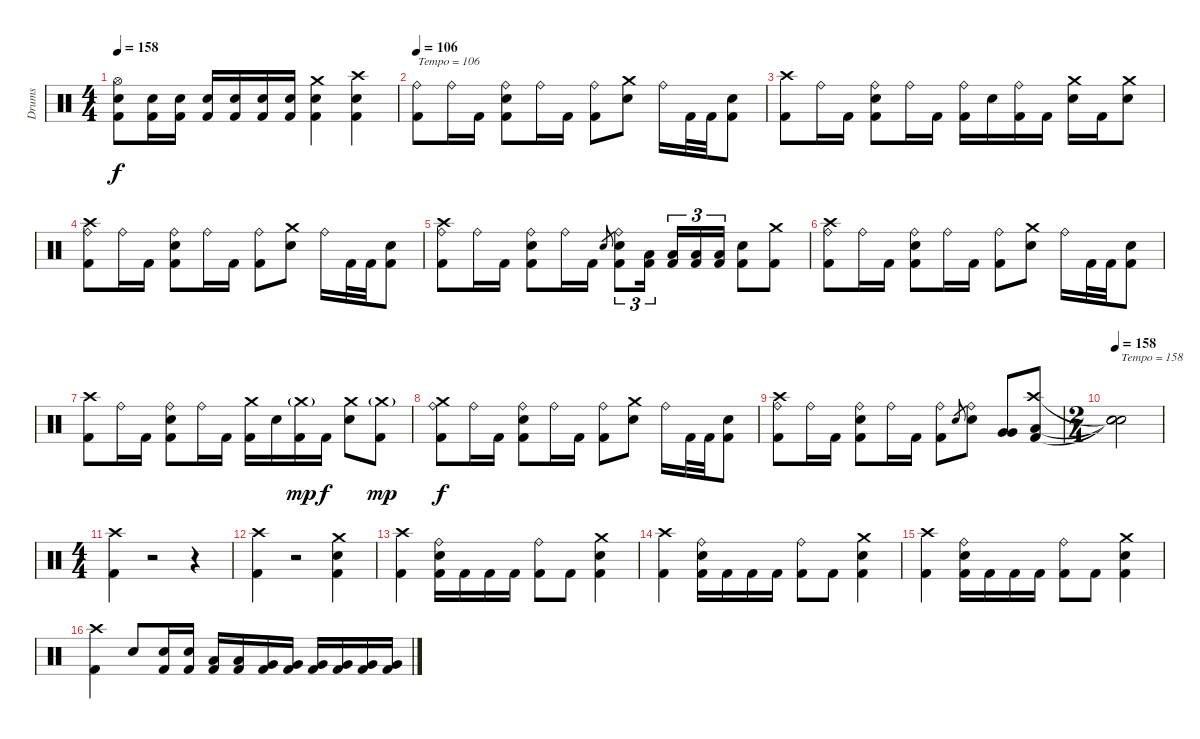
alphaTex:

\track ("Drums" "Drums") {instrument percussion}
\staff {score}
\articulation defaults
\ts (4 4)
\tempo 158
\clef neutral
\ks c
("Hi-Hat (open)" "Electric Snare (hit)" "Kick (hit) 2").8{dy f} ("Electric Snare (hit)" "Kick (hit) 2").16 ("Electric Snare (hit)" "Kick (hit) 2").16 ("Electric Snare (hit)" "Kick (hit) 2").16 ("Electric Snare (hit)" "Kick (hit) 2").16 ("Electric Snare (hit)" "Kick (hit) 2").16 ("Electric Snare (hit)" "Kick (hit) 2").16 ("Crash medium (hit)" "Electric Snare (hit)" "Kick (hit) 2").4 ("Crash high (hit)" "Electric Snare (hit)" "Kick (hit) 2").4 |
\tempo 106
("Ride (bell)" "Kick (hit) 2").8{txt "Tempo = 106"} "Ride (bell)".16 "Kick (hit) 2".16 ("Ride (bell)" "Electric Snare (hit)" "Kick (hit) 2").8 "Ride (bell)".16 "Kick (hit) 2".16 ("Ride (bell)" "Kick (hit) 2").8 ("Crash medium (hit)" "Electric Snare (hit)").8 "Ride (bell)".16 "Kick (hit) 2".32 "Kick (hit) 2".32 ("Electric Snare (hit)" "Kick (hit) 2").8 |
("Crash high (hit)" "Kick (hit) 2").8 "Ride (bell)".16 "Kick (hit) 2".16 ("Ride (bell)" "Electric Snare (hit)" "Kick (hit) 2").8 "Ride (bell)".16 "Kick (hit) 2".16 ("Ride (bell)" "Kick (hit) 2").16 "Electric Snare (hit)".16 ("Ride (bell)" "Kick (hit) 2").16 "Kick (hit) 2".16 ("Crash medium (hit)" "Electric Snare (hit)").16 "Kick (hit) 2".16 ("Crash medium (hit)" "Electric Snare (hit)").8 |
("Crash high (hit)" "Ride (bell)" "Kick (hit) 2").8 "Ride (bell)".16 "Kick (hit) 2".16 ("Ride (bell)" "Electric Snare (hit)" "Kick (hit) 2").8 "Ride (bell)".16 "Kick (hit) 2".16 ("Ride (bell)" "Kick (hit) 2").8 ("Crash medium (hit)" "Electric Snare (hit)").8 "Ride (bell)".16 "Kick (hit) 2".32 "Kick (hit) 2".32 ("Electric Snare (hit)" "Kick (hit) 2").8 |
("Crash high (hit)" "Ride (bell)" "Kick (hit) 2").8 "Ride (bell)".16 "Kick (hit) 2".16 ("Ride (bell)" "Electric Snare (hit)" "Kick (hit) 2").8 "Ride (bell)".16 "Kick (hit) 2".16 "Electric Snare (hit)".8{gr} ("Ride (bell)" "Electric Snare (hit)" "Kick (hit) 2").8{tu (3 2)} ("Low Floor Tom (hit)" "Kick (hit) 2").16{tu (3 2)} ("Low Floor Tom (hit)" "Kick (hit) 2").16{tu (3 2)} ("Low Floor Tom (hit)" "Kick (hit) 2").16{tu (3 2)} ("Low Floor Tom (hit)" "Kick (hit) 2").16{tu (3 2)} ("Electric Snare (hit)" "Kick (hit) 2").8 ("Crash medium (hit)" "Kick (hit) 2").8 |
("Crash high (hit)" "Ride (bell)" "Kick (hit) 2").8 "Ride (bell)".16 "Kick (hit) 2".16 ("Ride (bell)" "Electric Snare (hit)" "Kick (hit) 2").8 "Ride (bell)".16 "Kick (hit) 2".16 ("Ride (bell)" "Kick (hit) 2").8 ("Crash medium (hit)" "Electric Snare (hit)").8 "Ride (bell)".16 "Kick (hit) 2".32 "Kick (hit) 2".32 ("Electric Snare (hit)" "Kick (hit) 2").8 |
("Crash high (hit)" "Kick (hit) 2").8 "Ride (bell)".16 "Kick (hit) 2".16 ("Ride (bell)" "Electric Snare (hit)" "Kick (hit) 2").8 "Ride (bell)".16 "Kick (hit) 2".16 ("Crash medium (hit)" "Kick (hit) 2").16 "Electric Snare (hit)".16 ("Crash medium (hit)"{g} "Kick (hit) 2").16{dy mp} "Kick (hit) 2".16{dy f} ("Crash medium (hit)" "Electric Snare (hit)").8 ("Crash medium (hit)"{g} "Kick (hit) 2").8{dy mp} |
("Crash medium (hit)" "Ride (bell)" "Kick (hit) 2").8{dy f} "Ride (bell)".16 "Kick (hit) 2".16 ("Ride (bell)" "Electric Snare (hit)" "Kick (hit) 2").8 "Ride (bell)".16 "Kick (hit) 2".16 ("Ride (bell)" "Kick (hit) 2").8 ("Crash medium (hit)" "Electric Snare (hit)").8 "Ride (bell)".16 "Kick (hit) 2".32 "Kick (hit) 2".32 ("Electric Snare (hit)" "Kick (hit) 2").8 |
("Crash high (hit)" "Ride (bell)" "Kick (hit) 2").8 "Ride (bell)".16 "Kick (hit) 2".16 ("Ride (bell)" "Electric Snare (hit)" "Kick (hit) 2").8 "Ride (bell)".16 "Kick (hit) 2".16 ("Ride (bell)" "Kick (hit) 2").8 "Electric Snare (hit)".8{gr} ("Ride (bell)" "Electric Snare (hit)").8 ("Very Low Tom (hit)" "Very Low Tom (hit)").8 ("Crash high (hit)" "Low Floor Tom (hit)" "Kick (hit) 2").8 |
\ts (2 4)
\tempo 158
("Snare (hit)"{t} "Snare (hit)"{t} "Snare (hit)"{t}).2{txt "Tempo = 158"} |
\ts (4 4)
("Crash high (hit)" "Kick (hit) 2").4 r.2 r.4 |
("Crash high (hit)" "Kick (hit) 2").4 r.2 ("Crash medium (hit)" "Electric Snare (hit)" "Kick (hit) 2").4 |
("Crash high (hit)" "Kick (hit) 2").4 ("Ride (bell)" "Electric Snare (hit)" "Kick (hit) 2").16 "Kick (hit) 2".16 "Kick (hit) 2".16 "Kick (hit) 2".16 ("Ride (bell)" "Kick (hit) 2").8 "Kick (hit) 2".8 ("Crash medium (hit)" "Electric Snare (hit)" "Kick (hit) 2").4 |
("Crash high (hit)" "Kick (hit) 2").4 ("Ride (bell)" "Electric Snare (hit)" "Kick (hit) 2").16 "Kick (hit) 2".16 "Kick (hit) 2".16 "Kick (hit) 2".16 ("Ride (bell)" "Kick (hit) 2").8 "Kick (hit) 2".8 ("Crash medium (hit)" "Electric Snare (hit)" "Kick (hit) 2").4 |
("Crash high (hit)" "Kick (hit) 2").4 ("Ride (bell)" "Electric Snare (hit)" "Kick (hit) 2").16 "Kick (hit) 2".16 "Kick (hit) 2".16 "Kick (hit) 2".16 ("Ride (bell)" "Kick (hit) 2").8 "Kick (hit) 2".8 ("Crash medium (hit)" "Electric Snare (hit)" "Kick (hit) 2").4 |
("Crash high (hit)" "Kick (hit) 2").4 "Electric Snare (hit)".8 ("Electric Snare (hit)" "Kick (hit) 2").16 ("Electric Snare (hit)" "Kick (hit) 2").16 ("Low Floor Tom (hit)" "Kick (hit) 2").16 ("Low Floor Tom (hit)" "Kick (hit) 2").16 ("Very Low Tom (hit)" "Kick (hit) 2").16 ("Very Low Tom (hit)" "Kick (hit) 2").16 ("Very Low Tom (hit)" "Kick (hit) 2").16 ("Very Low Tom (hit)" "Kick (hit) 2").16 ("Very Low Tom (hit)" "Kick (hit) 2").16 ("Very Low Tom (hit)" "Kick (hit) 2").16
